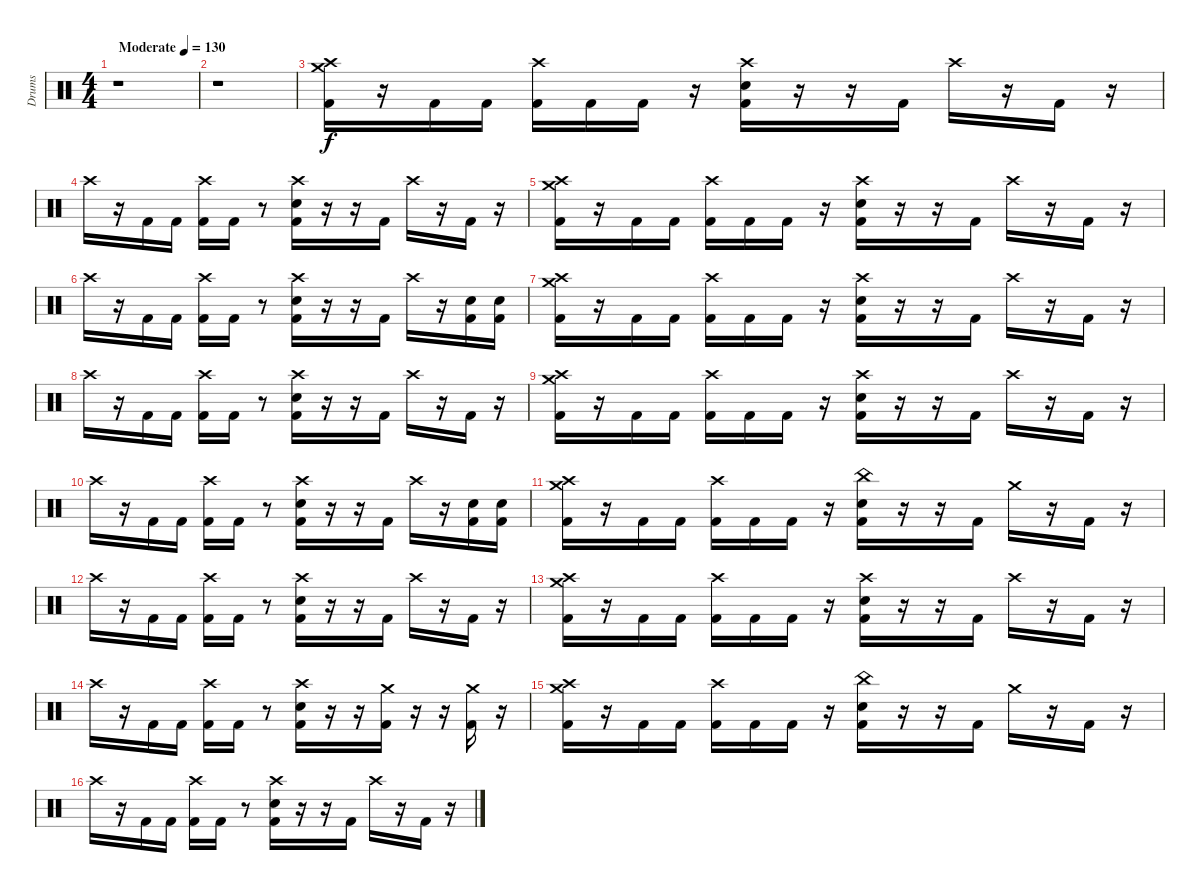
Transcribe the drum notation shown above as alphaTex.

\track ("Drums" "Drums") {instrument percussion}
\staff {score}
\articulation defaults
\ts (4 4)
\tempo (130 "Moderate")
\clef neutral
\ks c
r.1{dy f} |
r.1 |
("Crash high (hit)" "Crash medium (hit)" "Kick (hit) 2").16 r.16 "Kick (hit) 2".16 "Kick (hit) 2".16 ("Crash high (hit)" "Kick (hit) 2").16 "Kick (hit) 2".16 "Kick (hit) 2".16 r.16 ("Crash high (hit)" "Electric Snare (hit)" "Kick (hit) 2").16 r.16 r.16 "Kick (hit) 2".16 "Crash high (hit)".16 r.16 "Kick (hit) 2".16 r.16 |
"Crash high (hit)".16 r.16 "Kick (hit) 2".16 "Kick (hit) 2".16 ("Crash high (hit)" "Kick (hit) 2").16 "Kick (hit) 2".16 r.8 ("Crash high (hit)" "Electric Snare (hit)" "Kick (hit) 2").16 r.16 r.16 "Kick (hit) 2".16 "Crash high (hit)".16 r.16 "Kick (hit) 2".16 r.16 |
("Crash high (hit)" "Crash medium (hit)" "Kick (hit) 2").16 r.16 "Kick (hit) 2".16 "Kick (hit) 2".16 ("Crash high (hit)" "Kick (hit) 2").16 "Kick (hit) 2".16 "Kick (hit) 2".16 r.16 ("Crash high (hit)" "Electric Snare (hit)" "Kick (hit) 2").16 r.16 r.16 "Kick (hit) 2".16 "Crash high (hit)".16 r.16 "Kick (hit) 2".16 r.16 |
"Crash high (hit)".16 r.16 "Kick (hit) 2".16 "Kick (hit) 2".16 ("Crash high (hit)" "Kick (hit) 2").16 "Kick (hit) 2".16 r.8 ("Crash high (hit)" "Electric Snare (hit)" "Kick (hit) 2").16 r.16 r.16 "Kick (hit) 2".16 "Crash high (hit)".16 r.16 ("Electric Snare (hit)" "Kick (hit) 2").16 ("Electric Snare (hit)" "Kick (hit) 2").16 |
("Crash high (hit)" "Crash medium (hit)" "Kick (hit) 2").16 r.16 "Kick (hit) 2".16 "Kick (hit) 2".16 ("Crash high (hit)" "Kick (hit) 2").16 "Kick (hit) 2".16 "Kick (hit) 2".16 r.16 ("Crash high (hit)" "Electric Snare (hit)" "Kick (hit) 2").16 r.16 r.16 "Kick (hit) 2".16 "Crash high (hit)".16 r.16 "Kick (hit) 2".16 r.16 |
"Crash high (hit)".16 r.16 "Kick (hit) 2".16 "Kick (hit) 2".16 ("Crash high (hit)" "Kick (hit) 2").16 "Kick (hit) 2".16 r.8 ("Crash high (hit)" "Electric Snare (hit)" "Kick (hit) 2").16 r.16 r.16 "Kick (hit) 2".16 "Crash high (hit)".16 r.16 "Kick (hit) 2".16 r.16 |
("Crash high (hit)" "Crash medium (hit)" "Kick (hit) 2").16 r.16 "Kick (hit) 2".16 "Kick (hit) 2".16 ("Crash high (hit)" "Kick (hit) 2").16 "Kick (hit) 2".16 "Kick (hit) 2".16 r.16 ("Crash high (hit)" "Electric Snare (hit)" "Kick (hit) 2").16 r.16 r.16 "Kick (hit) 2".16 "Crash high (hit)".16 r.16 "Kick (hit) 2".16 r.16 |
"Crash high (hit)".16 r.16 "Kick (hit) 2".16 "Kick (hit) 2".16 ("Crash high (hit)" "Kick (hit) 2").16 "Kick (hit) 2".16 r.8 ("Crash high (hit)" "Electric Snare (hit)" "Kick (hit) 2").16 r.16 r.16 "Kick (hit) 2".16 "Crash high (hit)".16 r.16 ("Electric Snare (hit)" "Kick (hit) 2").16 ("Electric Snare (hit)" "Kick (hit) 2").16 |
("Crash high (hit)" "Crash medium (hit)" "Kick (hit) 2").16 r.16 "Kick (hit) 2".16 "Kick (hit) 2".16 ("Crash high (hit)" "Kick (hit) 2").16 "Kick (hit) 2".16 "Kick (hit) 2".16 r.16 ("China (hit)" "Electric Snare (hit)" "Kick (hit) 2").16 r.16 r.16 "Kick (hit) 2".16 "Crash medium (hit)".16 r.16 "Kick (hit) 2".16 r.16 |
"Crash high (hit)".16 r.16 "Kick (hit) 2".16 "Kick (hit) 2".16 ("Crash high (hit)" "Kick (hit) 2").16 "Kick (hit) 2".16 r.8 ("Crash high (hit)" "Electric Snare (hit)" "Kick (hit) 2").16 r.16 r.16 "Kick (hit) 2".16 "Crash high (hit)".16 r.16 "Kick (hit) 2".16 r.16 |
("Crash high (hit)" "Crash medium (hit)" "Kick (hit) 2").16 r.16 "Kick (hit) 2".16 "Kick (hit) 2".16 ("Crash high (hit)" "Kick (hit) 2").16 "Kick (hit) 2".16 "Kick (hit) 2".16 r.16 ("Crash high (hit)" "Electric Snare (hit)" "Kick (hit) 2").16 r.16 r.16 "Kick (hit) 2".16 "Crash high (hit)".16 r.16 "Kick (hit) 2".16 r.16 |
"Crash high (hit)".16 r.16 "Kick (hit) 2".16 "Kick (hit) 2".16 ("Crash high (hit)" "Kick (hit) 2").16 "Kick (hit) 2".16 r.8 ("Crash high (hit)" "Electric Snare (hit)" "Kick (hit) 2").16 r.16 r.16 ("Crash medium (hit)" "Kick (hit) 2").16 r.16 r.16 ("Crash medium (hit)" "Kick (hit) 2").16 r.16 |
("Crash high (hit)" "Crash medium (hit)" "Kick (hit) 2").16 r.16 "Kick (hit) 2".16 "Kick (hit) 2".16 ("Crash high (hit)" "Kick (hit) 2").16 "Kick (hit) 2".16 "Kick (hit) 2".16 r.16 ("China (hit)" "Electric Snare (hit)" "Kick (hit) 2").16 r.16 r.16 "Kick (hit) 2".16 "Crash medium (hit)".16 r.16 "Kick (hit) 2".16 r.16 |
"Crash high (hit)".16 r.16 "Kick (hit) 2".16 "Kick (hit) 2".16 ("Crash high (hit)" "Kick (hit) 2").16 "Kick (hit) 2".16 r.8 ("Crash high (hit)" "Electric Snare (hit)" "Kick (hit) 2").16 r.16 r.16 "Kick (hit) 2".16 "Crash high (hit)".16 r.16 "Kick (hit) 2".16 r.16
